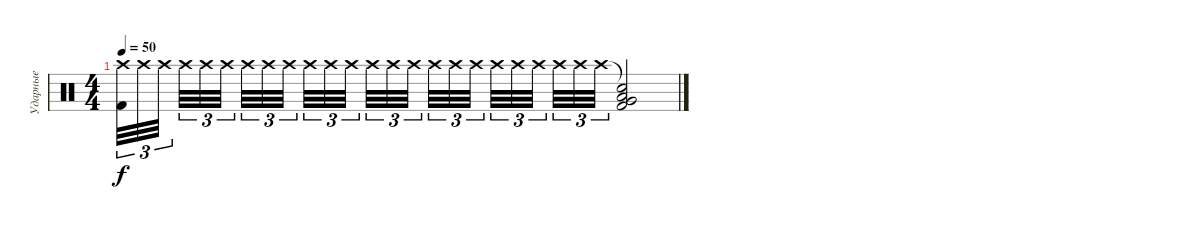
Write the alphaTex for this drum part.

\track ("Ударные" "Ударные") {instrument percussion}
\staff {score}
\articulation defaults
\ts (4 4)
\tempo 50
\clef neutral
\ks c
("Crash high (hit)" "Kick (hit) 2").32{tu (3 2) dy f volume 7 balance 8} "Crash high (hit)".32{tu (3 2)} "Crash high (hit)".32{tu (3 2)} "Crash high (hit)".32{tu (3 2)} "Crash high (hit)".32{tu (3 2)} "Crash high (hit)".32{tu (3 2)} "Crash high (hit)".32{tu (3 2)} "Crash high (hit)".32{tu (3 2)} "Crash high (hit)".32{tu (3 2)} "Crash high (hit)".32{tu (3 2)} "Crash high (hit)".32{tu (3 2)} "Crash high (hit)".32{tu (3 2)} "Crash high (hit)".32{tu (3 2)} "Crash high (hit)".32{tu (3 2)} "Crash high (hit)".32{tu (3 2)} "Crash high (hit)".32{tu (3 2)} "Crash high (hit)".32{tu (3 2)} "Crash high (hit)".32{tu (3 2)} "Crash high (hit)".32{tu (3 2)} "Crash high (hit)".32{tu (3 2)} "Crash high (hit)".32{tu (3 2)} "Crash high (hit)".32{tu (3 2)} "Crash high (hit)".32{tu (3 2)} "Crash high (hit)".32{tu (3 2)} ("Snare (hit)"{t} "Very Low Tom (hit)" "Low Floor Tom (hit)" "Kick (hit) 2").2{volume 16}
